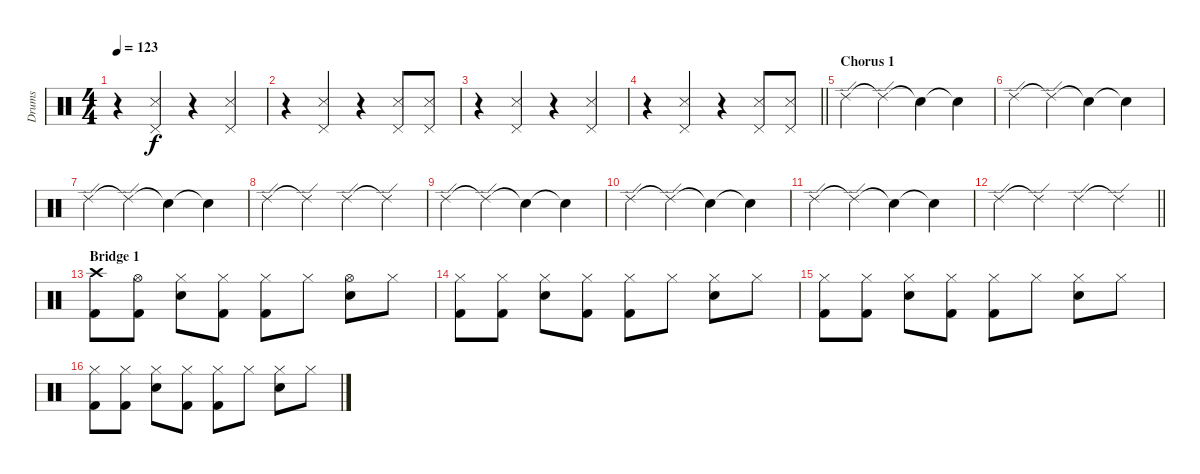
\track ("Drums" "Drums") {instrument percussion}
\staff {score}
\articulation defaults
\ts (4 4)
\tempo 123
\clef neutral
\ks c
r.4{dy f} ("Snare (side stick) 3" "Pedal Hi-Hat (hit)").4 r.4 ("Snare (side stick) 3" "Pedal Hi-Hat (hit)").4 |
r.4 ("Snare (side stick) 3" "Pedal Hi-Hat (hit)").4 r.4 ("Snare (side stick) 3" "Pedal Hi-Hat (hit)").8 ("Snare (side stick) 3" "Pedal Hi-Hat (hit)").8 |
r.4 ("Snare (side stick) 3" "Pedal Hi-Hat (hit)").4 r.4 ("Snare (side stick) 3" "Pedal Hi-Hat (hit)").4 |
\barLineRight lightlight
r.4 ("Snare (side stick) 3" "Pedal Hi-Hat (hit)").4 r.4 ("Snare (side stick) 3" "Pedal Hi-Hat (hit)").8 ("Snare (side stick) 3" "Pedal Hi-Hat (hit)").8 |
\section ("" "Chorus 1")
"Ride (edge) 2".4 "Ride (edge) 2"{t}.4 "Snare (hit)"{t}.4 "Snare (hit)"{t}.4 |
"Ride (edge) 2".4 "Ride (edge) 2"{t}.4 "Snare (hit)"{t}.4 "Snare (hit)"{t}.4 |
"Ride (edge) 2".4 "Ride (edge) 2"{t}.4 "Snare (hit)"{t}.4 "Snare (hit)"{t}.4 |
"Ride (edge) 2".4 "Ride (edge) 2"{t}.4 "Ride (edge) 2".4 "Ride (edge) 2"{t}.4 |
"Ride (edge) 2".4 "Ride (edge) 2"{t}.4 "Snare (hit)"{t}.4 "Snare (hit)"{t}.4 |
"Ride (edge) 2".4 "Ride (edge) 2"{t}.4 "Snare (hit)"{t}.4 "Snare (hit)"{t}.4 |
"Ride (edge) 2".4 "Ride (edge) 2"{t}.4 "Snare (hit)"{t}.4 "Snare (hit)"{t}.4 |
\barLineRight lightlight "Ride (edge) 2".4 "Ride (edge) 2"{t}.4 "Ride (edge) 2".4 "Ride (edge) 2"{t}.4
|
\section ("" "Bridge 1")
("Kick (hit) 2" "Crash high (hit)").8 ("Kick (hit) 2" "Hi-Hat (open)").8 ("Electric Snare (hit)" "Hi-Hat (closed)").8 ("Kick (hit) 2" "Hi-Hat (closed)").8 ("Kick (hit) 2" "Hi-Hat (closed)").8 "Hi-Hat (closed)".8 ("Electric Snare (hit)" "Hi-Hat (open)").8 "Hi-Hat (closed)".8 |
("Kick (hit) 2" "Hi-Hat (closed)").8 ("Kick (hit) 2" "Hi-Hat (closed)").8 ("Electric Snare (hit)" "Hi-Hat (closed)").8 ("Kick (hit) 2" "Hi-Hat (closed)").8 ("Kick (hit) 2" "Hi-Hat (closed)").8 "Hi-Hat (closed)".8 ("Electric Snare (hit)" "Hi-Hat (closed)").8 "Hi-Hat (closed)".8 |
("Kick (hit) 2" "Hi-Hat (closed)").8 ("Kick (hit) 2" "Hi-Hat (closed)").8 ("Electric Snare (hit)" "Hi-Hat (closed)").8 ("Kick (hit) 2" "Hi-Hat (closed)").8 ("Kick (hit) 2" "Hi-Hat (closed)").8 "Hi-Hat (closed)".8 ("Electric Snare (hit)" "Hi-Hat (closed)").8 "Hi-Hat (closed)".8 |
("Kick (hit) 2" "Hi-Hat (closed)").8 ("Kick (hit) 2" "Hi-Hat (closed)").8 ("Electric Snare (hit)" "Hi-Hat (closed)").8 ("Kick (hit) 2" "Hi-Hat (closed)").8 ("Kick (hit) 2" "Hi-Hat (closed)").8 "Hi-Hat (closed)".8 ("Electric Snare (hit)" "Hi-Hat (closed)").8 "Hi-Hat (closed)".8
